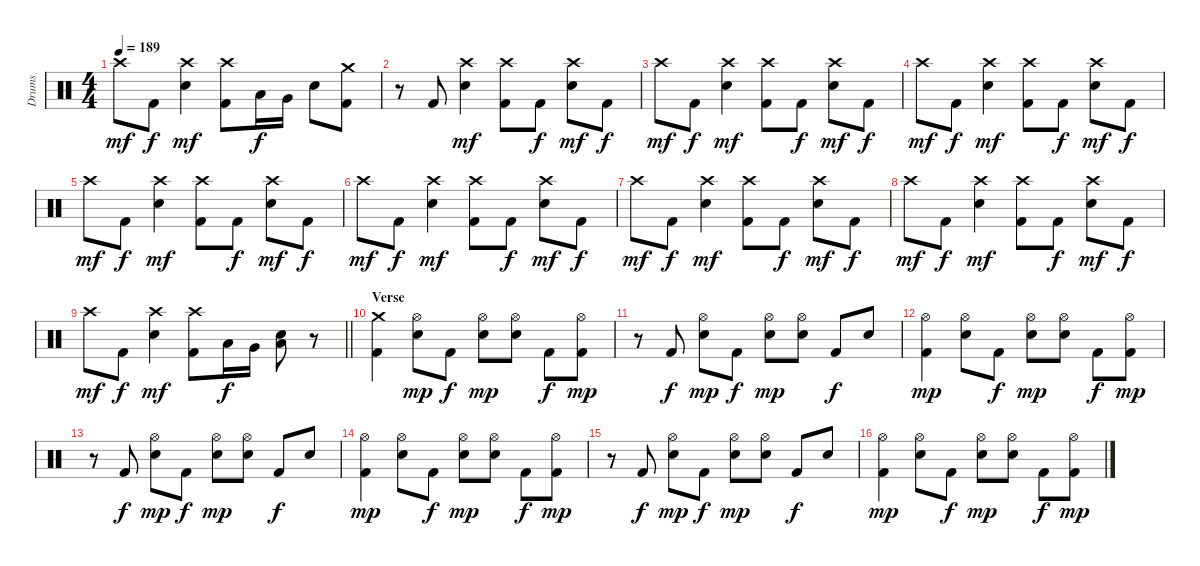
\track ("Drums" "Drums") {instrument percussion}
\staff {score}
\articulation defaults
\ts (4 4)
\tempo 189
\clef neutral
\ks c "Crash high (hit)".8{dy mf} "Kick (hit) 2".8{dy f}
("Crash high (hit)" "Snare (hit) 2").4{dy mf} ("Crash high (hit)" "Kick (hit) 2").8 "Low Tom (hit)".16{dy f} "Very Low Tom (hit)".16 "Snare (hit) 2".8 ("Crash medium (hit)" "Kick (hit) 2").8 |
r.8 "Kick (hit) 2".8 ("Crash high (hit)" "Snare (hit) 2").4{dy mf} ("Crash high (hit)" "Kick (hit) 2").8 "Kick (hit) 2".8{dy f} ("Crash high (hit)" "Snare (hit) 2").8{dy mf} "Kick (hit) 2".8{dy f} |
"Crash high (hit)".8{dy mf} "Kick (hit) 2".8{dy f} ("Crash high (hit)" "Snare (hit) 2").4{dy mf} ("Crash high (hit)" "Kick (hit) 2").8 "Kick (hit) 2".8{dy f} ("Crash high (hit)" "Snare (hit) 2").8{dy mf} "Kick (hit) 2".8{dy f} |
"Crash high (hit)".8{dy mf} "Kick (hit) 2".8{dy f} ("Crash high (hit)" "Snare (hit) 2").4{dy mf} ("Crash high (hit)" "Kick (hit) 2").8 "Kick (hit) 2".8{dy f} ("Crash high (hit)" "Snare (hit) 2").8{dy mf} "Kick (hit) 2".8{dy f} |
"Crash high (hit)".8{dy mf} "Kick (hit) 2".8{dy f} ("Crash high (hit)" "Snare (hit) 2").4{dy mf} ("Crash high (hit)" "Kick (hit) 2").8 "Kick (hit) 2".8{dy f} ("Crash high (hit)" "Snare (hit) 2").8{dy mf} "Kick (hit) 2".8{dy f} |
"Crash high (hit)".8{dy mf} "Kick (hit) 2".8{dy f} ("Crash high (hit)" "Snare (hit) 2").4{dy mf} ("Crash high (hit)" "Kick (hit) 2").8 "Kick (hit) 2".8{dy f} ("Crash high (hit)" "Snare (hit) 2").8{dy mf} "Kick (hit) 2".8{dy f} |
"Crash high (hit)".8{dy mf} "Kick (hit) 2".8{dy f} ("Crash high (hit)" "Snare (hit) 2").4{dy mf} ("Crash high (hit)" "Kick (hit) 2").8 "Kick (hit) 2".8{dy f} ("Crash high (hit)" "Snare (hit) 2").8{dy mf} "Kick (hit) 2".8{dy f} |
"Crash high (hit)".8{dy mf} "Kick (hit) 2".8{dy f} ("Crash high (hit)" "Snare (hit) 2").4{dy mf} ("Crash high (hit)" "Kick (hit) 2").8 "Kick (hit) 2".8{dy f} ("Crash high (hit)" "Snare (hit) 2").8{dy mf} "Kick (hit) 2".8{dy f} |
\barLineRight lightlight "Crash high (hit)".8{dy mf} "Kick (hit) 2".8{dy f}
("Crash high (hit)" "Snare (hit) 2").4{dy mf} ("Crash high (hit)" "Kick (hit) 2").8 "Low Tom (hit)".16{dy f} "Very Low Tom (hit)".16 ("Low Floor Tom (hit)" "Snare (hit) 2").8 r.8 |
\section ("" "Verse")
("Crash medium (hit)" "Kick (hit) 2").4 ("Hi-Hat (open)" "Snare (hit) 2").8{dy mp} "Kick (hit) 2".8{dy f} ("Hi-Hat (open)" "Snare (hit) 2").8{dy mp} ("Hi-Hat (open)" "Snare (hit) 2").8 "Kick (hit) 2".8{dy f} ("Hi-Hat (open)" "Kick (hit) 2").8{dy mp} |
r.8 "Kick (hit) 2".8{dy f} ("Hi-Hat (open)" "Snare (hit) 2").8{dy mp} "Kick (hit) 2".8{dy f} ("Hi-Hat (open)" "Snare (hit) 2").8{dy mp} ("Hi-Hat (open)" "Snare (hit) 2").8 "Kick (hit) 2".8{dy f} "Snare (hit) 2".8 |
("Hi-Hat (open)" "Kick (hit) 2").4{dy mp} ("Hi-Hat (open)" "Snare (hit) 2").8 "Kick (hit) 2".8{dy f} ("Hi-Hat (open)" "Snare (hit) 2").8{dy mp} ("Hi-Hat (open)" "Snare (hit) 2").8 "Kick (hit) 2".8{dy f} ("Hi-Hat (open)" "Kick (hit) 2").8{dy mp} |
r.8 "Kick (hit) 2".8{dy f} ("Hi-Hat (open)" "Snare (hit) 2").8{dy mp} "Kick (hit) 2".8{dy f} ("Hi-Hat (open)" "Snare (hit) 2").8{dy mp} ("Hi-Hat (open)" "Snare (hit) 2").8 "Kick (hit) 2".8{dy f} "Snare (hit) 2".8 |
("Hi-Hat (open)" "Kick (hit) 2").4{dy mp} ("Hi-Hat (open)" "Snare (hit) 2").8 "Kick (hit) 2".8{dy f} ("Hi-Hat (open)" "Snare (hit) 2").8{dy mp} ("Hi-Hat (open)" "Snare (hit) 2").8 "Kick (hit) 2".8{dy f} ("Hi-Hat (open)" "Kick (hit) 2").8{dy mp} |
r.8 "Kick (hit) 2".8{dy f} ("Hi-Hat (open)" "Snare (hit) 2").8{dy mp} "Kick (hit) 2".8{dy f} ("Hi-Hat (open)" "Snare (hit) 2").8{dy mp} ("Hi-Hat (open)" "Snare (hit) 2").8 "Kick (hit) 2".8{dy f} "Snare (hit) 2".8 |
("Hi-Hat (open)" "Kick (hit) 2").4{dy mp} ("Hi-Hat (open)" "Snare (hit) 2").8 "Kick (hit) 2".8{dy f} ("Hi-Hat (open)" "Snare (hit) 2").8{dy mp} ("Hi-Hat (open)" "Snare (hit) 2").8 "Kick (hit) 2".8{dy f} ("Hi-Hat (open)" "Kick (hit) 2").8{dy mp}
